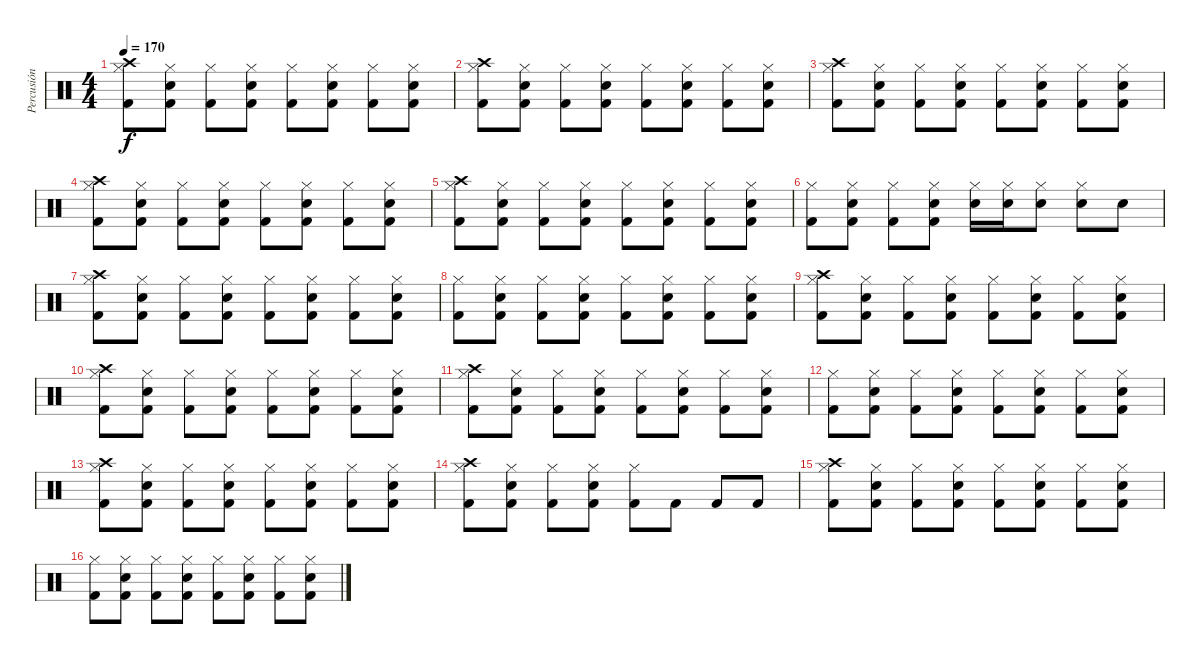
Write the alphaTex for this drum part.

\track ("Percusión" "Percusión") {instrument percussion}
\staff {score}
\articulation defaults
\ts (4 4)
\tempo 170
\clef neutral
\ks c
("Hi-Hat (closed)" "Crash high (hit)" "Kick (hit) 2").8{dy f} ("Hi-Hat (closed)" "Snare (hit) 2" "Kick (hit) 2").8 ("Hi-Hat (closed)" "Kick (hit) 2").8 ("Hi-Hat (closed)" "Snare (hit) 2" "Kick (hit) 2").8 ("Hi-Hat (closed)" "Kick (hit) 2").8 ("Hi-Hat (closed)" "Snare (hit) 2" "Kick (hit) 2").8 ("Hi-Hat (closed)" "Kick (hit) 2").8 ("Hi-Hat (closed)" "Snare (hit) 2" "Kick (hit) 2").8 |
("Hi-Hat (closed)" "Crash high (hit)" "Kick (hit) 2").8 ("Hi-Hat (closed)" "Snare (hit) 2" "Kick (hit) 2").8 ("Hi-Hat (closed)" "Kick (hit) 2").8 ("Hi-Hat (closed)" "Snare (hit) 2" "Kick (hit) 2").8 ("Hi-Hat (closed)" "Kick (hit) 2").8 ("Hi-Hat (closed)" "Snare (hit) 2" "Kick (hit) 2").8 ("Hi-Hat (closed)" "Kick (hit) 2").8 ("Hi-Hat (closed)" "Snare (hit) 2" "Kick (hit) 2").8 |
("Hi-Hat (closed)" "Crash high (hit)" "Kick (hit) 2").8 ("Hi-Hat (closed)" "Snare (hit) 2" "Kick (hit) 2").8 ("Hi-Hat (closed)" "Kick (hit) 2").8 ("Hi-Hat (closed)" "Snare (hit) 2" "Kick (hit) 2").8 ("Hi-Hat (closed)" "Kick (hit) 2").8 ("Hi-Hat (closed)" "Snare (hit) 2" "Kick (hit) 2").8 ("Hi-Hat (closed)" "Kick (hit) 2").8 ("Hi-Hat (closed)" "Snare (hit) 2" "Kick (hit) 2").8 |
("Hi-Hat (closed)" "Crash high (hit)" "Kick (hit) 2").8 ("Hi-Hat (closed)" "Snare (hit) 2" "Kick (hit) 2").8 ("Hi-Hat (closed)" "Kick (hit) 2").8 ("Hi-Hat (closed)" "Snare (hit) 2" "Kick (hit) 2").8 ("Hi-Hat (closed)" "Kick (hit) 2").8 ("Hi-Hat (closed)" "Snare (hit) 2" "Kick (hit) 2").8 ("Hi-Hat (closed)" "Kick (hit) 2").8 ("Hi-Hat (closed)" "Snare (hit) 2" "Kick (hit) 2").8 |
("Hi-Hat (closed)" "Crash high (hit)" "Kick (hit) 2").8 ("Hi-Hat (closed)" "Snare (hit) 2" "Kick (hit) 2").8 ("Hi-Hat (closed)" "Kick (hit) 2").8 ("Hi-Hat (closed)" "Snare (hit) 2" "Kick (hit) 2").8 ("Hi-Hat (closed)" "Kick (hit) 2").8 ("Hi-Hat (closed)" "Snare (hit) 2" "Kick (hit) 2").8 ("Hi-Hat (closed)" "Kick (hit) 2").8 ("Hi-Hat (closed)" "Snare (hit) 2" "Kick (hit) 2").8 |
("Hi-Hat (closed)" "Kick (hit) 2").8 ("Hi-Hat (closed)" "Snare (hit) 2" "Kick (hit) 2").8 ("Hi-Hat (closed)" "Kick (hit) 2").8 ("Hi-Hat (closed)" "Snare (hit) 2" "Kick (hit) 2").8 ("Hi-Hat (closed)" "Snare (hit) 2").16 ("Hi-Hat (closed)" "Snare (hit) 2").16 ("Hi-Hat (closed)" "Snare (hit) 2").8 ("Hi-Hat (closed)" "Snare (hit) 2").8 "Snare (hit) 2".8 |
("Hi-Hat (closed)" "Crash high (hit)" "Kick (hit) 2").8 ("Hi-Hat (closed)" "Snare (hit) 2" "Kick (hit) 2").8 ("Hi-Hat (closed)" "Kick (hit) 2").8 ("Hi-Hat (closed)" "Snare (hit) 2" "Kick (hit) 2").8 ("Hi-Hat (closed)" "Kick (hit) 2").8 ("Hi-Hat (closed)" "Snare (hit) 2" "Kick (hit) 2").8 ("Hi-Hat (closed)" "Kick (hit) 2").8 ("Hi-Hat (closed)" "Snare (hit) 2" "Kick (hit) 2").8 |
("Hi-Hat (closed)" "Kick (hit) 2").8 ("Hi-Hat (closed)" "Snare (hit) 2" "Kick (hit) 2").8 ("Hi-Hat (closed)" "Kick (hit) 2").8 ("Hi-Hat (closed)" "Snare (hit) 2" "Kick (hit) 2").8 ("Hi-Hat (closed)" "Kick (hit) 2").8 ("Hi-Hat (closed)" "Snare (hit) 2" "Kick (hit) 2").8 ("Hi-Hat (closed)" "Kick (hit) 2").8 ("Hi-Hat (closed)" "Snare (hit) 2" "Kick (hit) 2").8 |
("Hi-Hat (closed)" "Crash high (hit)" "Kick (hit) 2").8 ("Hi-Hat (closed)" "Snare (hit) 2" "Kick (hit) 2").8 ("Hi-Hat (closed)" "Kick (hit) 2").8 ("Hi-Hat (closed)" "Snare (hit) 2" "Kick (hit) 2").8 ("Hi-Hat (closed)" "Kick (hit) 2").8 ("Hi-Hat (closed)" "Snare (hit) 2" "Kick (hit) 2").8 ("Hi-Hat (closed)" "Kick (hit) 2").8 ("Hi-Hat (closed)" "Snare (hit) 2" "Kick (hit) 2").8 |
("Hi-Hat (closed)" "Crash high (hit)" "Kick (hit) 2").8 ("Hi-Hat (closed)" "Snare (hit) 2" "Kick (hit) 2").8 ("Hi-Hat (closed)" "Kick (hit) 2").8 ("Hi-Hat (closed)" "Snare (hit) 2" "Kick (hit) 2").8 ("Hi-Hat (closed)" "Kick (hit) 2").8 ("Hi-Hat (closed)" "Snare (hit) 2" "Kick (hit) 2").8 ("Hi-Hat (closed)" "Kick (hit) 2").8 ("Hi-Hat (closed)" "Snare (hit) 2" "Kick (hit) 2").8 |
("Hi-Hat (closed)" "Crash high (hit)" "Kick (hit) 2").8 ("Hi-Hat (closed)" "Snare (hit) 2" "Kick (hit) 2").8 ("Hi-Hat (closed)" "Kick (hit) 2").8 ("Hi-Hat (closed)" "Snare (hit) 2" "Kick (hit) 2").8 ("Hi-Hat (closed)" "Kick (hit) 2").8 ("Hi-Hat (closed)" "Snare (hit) 2" "Kick (hit) 2").8 ("Hi-Hat (closed)" "Kick (hit) 2").8 ("Hi-Hat (closed)" "Snare (hit) 2" "Kick (hit) 2").8 |
("Hi-Hat (closed)" "Kick (hit) 2").8 ("Hi-Hat (closed)" "Snare (hit) 2" "Kick (hit) 2").8 ("Hi-Hat (closed)" "Kick (hit) 2").8 ("Hi-Hat (closed)" "Snare (hit) 2" "Kick (hit) 2").8 ("Hi-Hat (closed)" "Kick (hit) 2").8 ("Hi-Hat (closed)" "Snare (hit) 2" "Kick (hit) 2").8 ("Hi-Hat (closed)" "Kick (hit) 2").8 ("Hi-Hat (closed)" "Snare (hit) 2" "Kick (hit) 2").8 |
("Hi-Hat (closed)" "Crash high (hit)" "Kick (hit) 2").8 ("Hi-Hat (closed)" "Snare (hit) 2" "Kick (hit) 2").8 ("Hi-Hat (closed)" "Kick (hit) 2").8 ("Hi-Hat (closed)" "Snare (hit) 2" "Kick (hit) 2").8 ("Hi-Hat (closed)" "Kick (hit) 2").8 ("Hi-Hat (closed)" "Snare (hit) 2" "Kick (hit) 2").8 ("Hi-Hat (closed)" "Kick (hit) 2").8 ("Hi-Hat (closed)" "Snare (hit) 2" "Kick (hit) 2").8 |
("Hi-Hat (closed)" "Crash high (hit)" "Kick (hit) 2").8 ("Hi-Hat (closed)" "Snare (hit) 2" "Kick (hit) 2").8 ("Hi-Hat (closed)" "Kick (hit) 2").8 ("Hi-Hat (closed)" "Snare (hit) 2" "Kick (hit) 2").8 ("Hi-Hat (closed)" "Kick (hit) 2").8 "Kick (hit) 2".8 "Kick (hit) 2".8 "Kick (hit) 2".8 |
("Hi-Hat (closed)" "Crash high (hit)" "Kick (hit) 2").8 ("Hi-Hat (closed)" "Snare (hit) 2" "Kick (hit) 2").8 ("Hi-Hat (closed)" "Kick (hit) 2").8 ("Hi-Hat (closed)" "Snare (hit) 2" "Kick (hit) 2").8 ("Hi-Hat (closed)" "Kick (hit) 2").8 ("Hi-Hat (closed)" "Snare (hit) 2" "Kick (hit) 2").8 ("Hi-Hat (closed)" "Kick (hit) 2").8 ("Hi-Hat (closed)" "Snare (hit) 2" "Kick (hit) 2").8 |
("Hi-Hat (closed)" "Kick (hit) 2").8 ("Hi-Hat (closed)" "Snare (hit) 2" "Kick (hit) 2").8 ("Hi-Hat (closed)" "Kick (hit) 2").8 ("Hi-Hat (closed)" "Snare (hit) 2" "Kick (hit) 2").8 ("Hi-Hat (closed)" "Kick (hit) 2").8 ("Hi-Hat (closed)" "Snare (hit) 2" "Kick (hit) 2").8 ("Hi-Hat (closed)" "Kick (hit) 2").8 ("Hi-Hat (closed)" "Snare (hit) 2" "Kick (hit) 2").8
